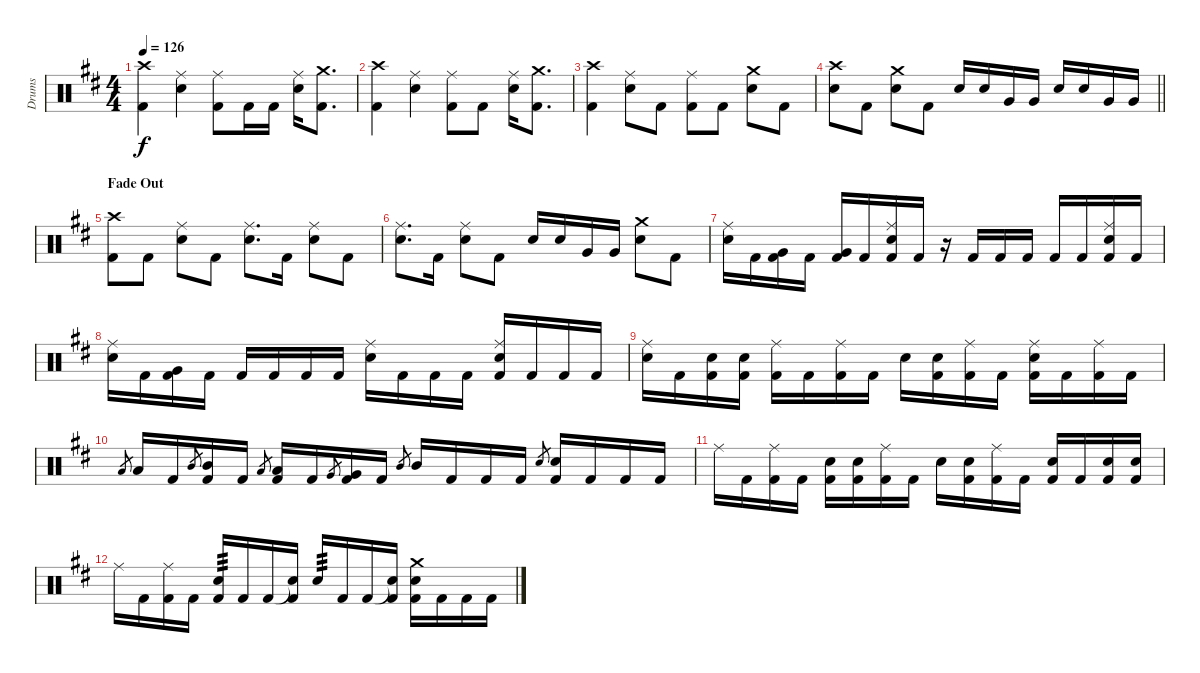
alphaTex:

\track ("Drums" "Drums") {instrument percussion}
\staff {score}
\articulation defaults
\ts (4 4)
\tempo 126
\clef neutral
\ks d
("Crash high (hit)" "Kick (hit) 2").4{dy f} ("Ride (middle)" "Electric Snare (hit)").4 ("Ride (middle)" "Kick (hit) 2").8 "Kick (hit) 2".16 "Kick (hit) 2".16 ("Ride (middle)" "Electric Snare (hit)").16 ("Crash medium (hit)" "Kick (hit) 2").8{d} |
("Crash high (hit)" "Kick (hit) 2").4 ("Ride (middle)" "Electric Snare (hit)").4 ("Ride (middle)" "Kick (hit) 2").8 "Kick (hit) 2".8 ("Ride (middle)" "Electric Snare (hit)").16 ("Crash medium (hit)" "Kick (hit) 2").8{d} |
("Crash high (hit)" "Kick (hit) 2").4 ("Ride (middle)" "Electric Snare (hit)").8 "Kick (hit) 2".8 ("Ride (middle)" "Kick (hit) 2").8 "Kick (hit) 2".8 ("Crash medium (hit)" "Electric Snare (hit)").8 "Kick (hit) 2".8 |
\barLineRight lightlight
("Crash high (hit)" "Electric Snare (hit)").8 "Kick (hit) 2".8 ("Crash medium (hit)" "Electric Snare (hit)").8 "Kick (hit) 2".8 "Electric Snare (hit)".16 "Electric Snare (hit)".16 "Very Low Tom (hit)".16 "Very Low Tom (hit)".16 "Electric Snare (hit)".16 "Electric Snare (hit)".16 "Very Low Tom (hit)".16 "Very Low Tom (hit)".16 |
\section ("" "Fade Out")
("Crash high (hit)" "Kick (hit) 2").8 "Kick (hit) 2".8 ("Ride (middle)" "Electric Snare (hit)").8 "Kick (hit) 2".8 ("Ride (middle)" "Electric Snare (hit)").8{d} "Kick (hit) 2".16 ("Ride (middle)" "Electric Snare (hit)").8 "Kick (hit) 2".8 |
("Ride (middle)" "Electric Snare (hit)").8{d} "Kick (hit) 2".16 ("Ride (middle)" "Electric Snare (hit)").8 "Kick (hit) 2".8 "Electric Snare (hit)".16 "Electric Snare (hit)".16 "Very Low Tom (hit)".16 "Very Low Tom (hit)".16 ("Crash medium (hit)" "Electric Snare (hit)").8 "Kick (hit) 2".8 |
("Ride (middle)" "Electric Snare (hit)").16 "Kick (hit) 2".16 ("Very Low Tom (hit)" "Kick (hit) 2").16 "Kick (hit) 2".16 ("Very Low Tom (hit)" "Kick (hit) 2").16 "Kick (hit) 2".16 ("Ride (middle)" "Electric Snare (hit)" "Kick (hit) 2").16 "Kick (hit) 2".16 r.16 "Kick (hit) 2".16 "Kick (hit) 2".16 "Kick (hit) 2".16 "Kick (hit) 2".16 "Kick (hit) 2".16 ("Ride (middle)" "Electric Snare (hit)" "Kick (hit) 2").16 "Kick (hit) 2".16 |
("Ride (middle)" "Electric Snare (hit)").16 "Kick (hit) 2".16 ("Very Low Tom (hit)" "Kick (hit) 2").16 "Kick (hit) 2".16 "Kick (hit) 2".16 "Kick (hit) 2".16 "Kick (hit) 2".16 "Kick (hit) 2".16 ("Ride (middle)" "Electric Snare (hit)").16 "Kick (hit) 2".16 "Kick (hit) 2".16 "Kick (hit) 2".16 ("Ride (middle)" "Electric Snare (hit)" "Kick (hit) 2").16 "Kick (hit) 2".16 "Kick (hit) 2".16 "Kick (hit) 2".16 |
("Ride (middle)" "Electric Snare (hit)").16 "Kick (hit) 2".16 ("Electric Snare (hit)" "Kick (hit) 2").16 ("Electric Snare (hit)" "Kick (hit) 2").16 ("Ride (middle)" "Kick (hit) 2").16 "Kick (hit) 2".16 ("Ride (middle)" "Kick (hit) 2").16 "Kick (hit) 2".16 "Electric Snare (hit)".16 ("Electric Snare (hit)" "Kick (hit) 2").16 ("Ride (middle)" "Kick (hit) 2").16 "Kick (hit) 2".16 ("Ride (middle)" "Electric Snare (hit)" "Kick (hit) 2").16 "Kick (hit) 2".16 ("Ride (middle)" "Kick (hit) 2").16 "Kick (hit) 2".16 |
"Low Tom (hit)".8{gr} "Low Tom (hit)".16 "Kick (hit) 2".16 "Mid Tom (hit)".8{gr} ("Mid Tom (hit)" "Kick (hit) 2").16 "Kick (hit) 2".16 "Low Tom (hit)".8{gr} ("Low Tom (hit)" "Kick (hit) 2").16 "Kick (hit) 2".16 "Very Low Tom (hit)".8{gr} ("Very Low Tom (hit)" "Kick (hit) 2").16 "Kick (hit) 2".16 "Mid Tom (hit)".8{gr} "Mid Tom (hit)".16 "Kick (hit) 2".16 "Kick (hit) 2".16 "Kick (hit) 2".16 "Electric Snare (hit)".8{gr} ("Electric Snare (hit)" "Kick (hit) 2").16 "Kick (hit) 2".16 "Kick (hit) 2".16 "Kick (hit) 2".16 |
"Ride (middle)".16 "Kick (hit) 2".16 ("Ride (middle)" "Kick (hit) 2").16 "Kick (hit) 2".16 ("Electric Snare (hit)" "Kick (hit) 2").16 ("Electric Snare (hit)" "Kick (hit) 2").16 ("Ride (middle)" "Kick (hit) 2").16 "Kick (hit) 2".16 "Electric Snare (hit)".16 ("Electric Snare (hit)" "Kick (hit) 2").16 ("Ride (middle)" "Kick (hit) 2").16 "Kick (hit) 2".16 ("Electric Snare (hit)" "Kick (hit) 2").16 "Kick (hit) 2".16 ("Electric Snare (hit)" "Kick (hit) 2").16 ("Electric Snare (hit)" "Kick (hit) 2").16 |
"Ride (middle)".16 "Kick (hit) 2".16 ("Ride (middle)" "Kick (hit) 2").16 "Kick (hit) 2".16 ("Electric Snare (hit)" "Kick (hit) 2").16{tp 3} "Kick (hit) 2".16 "Kick (hit) 2".16 ("Snare (hit)"{t} "Kick (hit) 2").16 "Electric Snare (hit)".16{tp 3} "Kick (hit) 2".16 "Kick (hit) 2".16 ("Snare (hit)"{t} "Kick (hit) 2").16 ("Crash medium (hit)" "Electric Snare (hit)" "Kick (hit) 2").16 "Kick (hit) 2".16 "Kick (hit) 2".16 "Kick (hit) 2".16
